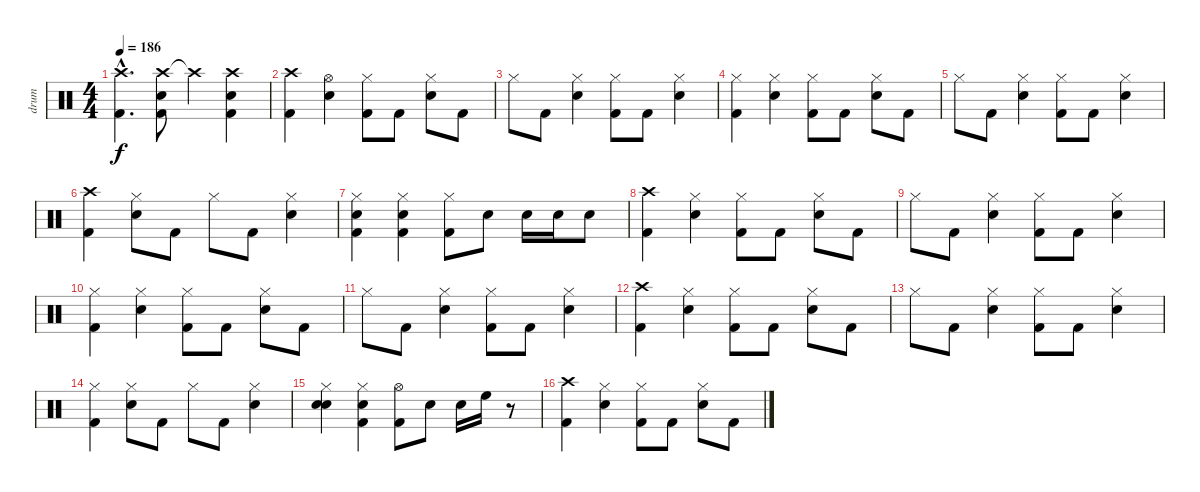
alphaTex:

\track ("drum" "drum") {instrument percussion}
\staff {score}
\articulation defaults
\ts (4 4)
\tempo 186
\clef neutral
\ks c
("Crash high (hit)"{hac} "Kick (hit) 2"{hac}).4{d dy f} ("Crash high (hit)" "Snare (hit) 2" "Kick (hit) 2").8 "Crash high (hit)"{t}.4 ("Crash high (hit)" "Snare (hit) 2" "Kick (hit) 2").4 |
("Crash high (hit)" "Kick (hit) 2").4 ("Hi-Hat (open)" "Snare (hit) 2").4 ("Hi-Hat (closed)" "Kick (hit) 2").8 "Kick (hit) 2".8 ("Hi-Hat (closed)" "Snare (hit) 2").8 "Kick (hit) 2".8 |
"Hi-Hat (closed)".8 "Kick (hit) 2".8 ("Hi-Hat (closed)" "Snare (hit) 2").4 ("Hi-Hat (closed)" "Kick (hit) 2").8 "Kick (hit) 2".8 ("Hi-Hat (closed)" "Snare (hit) 2").4 |
("Hi-Hat (closed)" "Kick (hit) 2").4 ("Hi-Hat (closed)" "Snare (hit) 2").4 ("Hi-Hat (closed)" "Kick (hit) 2").8 "Kick (hit) 2".8 ("Hi-Hat (closed)" "Snare (hit) 2").8 "Kick (hit) 2".8 |
"Hi-Hat (closed)".8 "Kick (hit) 2".8 ("Hi-Hat (closed)" "Snare (hit) 2").4 ("Hi-Hat (closed)" "Kick (hit) 2").8 "Kick (hit) 2".8 ("Hi-Hat (closed)" "Snare (hit) 2").4 |
("Crash high (hit)" "Kick (hit) 2").4 ("Hi-Hat (closed)" "Snare (hit) 2").8 "Kick (hit) 2".8 "Hi-Hat (closed)".8 "Kick (hit) 2".8 ("Hi-Hat (closed)" "Snare (hit) 2").4 |
("Hi-Hat (closed)" "Snare (hit) 2" "Kick (hit) 2").4 ("Hi-Hat (closed)" "Snare (hit) 2" "Kick (hit) 2").4 ("Hi-Hat (closed)" "Kick (hit) 2").8 "Snare (hit) 2".8 "Snare (hit) 2".16 "Snare (hit) 2".16 "Snare (hit) 2".8 |
("Crash high (hit)" "Kick (hit) 2").4 ("Hi-Hat (closed)" "Snare (hit) 2").4 ("Hi-Hat (closed)" "Kick (hit) 2").8 "Kick (hit) 2".8 ("Hi-Hat (closed)" "Snare (hit) 2").8 "Kick (hit) 2".8 |
"Hi-Hat (closed)".8 "Kick (hit) 2".8 ("Hi-Hat (closed)" "Snare (hit) 2").4 ("Hi-Hat (closed)" "Kick (hit) 2").8 "Kick (hit) 2".8 ("Hi-Hat (closed)" "Snare (hit) 2").4 |
("Hi-Hat (closed)" "Kick (hit) 2").4 ("Hi-Hat (closed)" "Snare (hit) 2").4 ("Hi-Hat (closed)" "Kick (hit) 2").8 "Kick (hit) 2".8 ("Hi-Hat (closed)" "Snare (hit) 2").8 "Kick (hit) 2".8 |
"Hi-Hat (closed)".8 "Kick (hit) 2".8 ("Hi-Hat (closed)" "Snare (hit) 2").4 ("Hi-Hat (closed)" "Kick (hit) 2").8 "Kick (hit) 2".8 ("Hi-Hat (closed)" "Snare (hit) 2").4 |
("Crash high (hit)" "Kick (hit) 2").4 ("Hi-Hat (closed)" "Snare (hit) 2").4 ("Hi-Hat (closed)" "Kick (hit) 2").8 "Kick (hit) 2".8 ("Hi-Hat (closed)" "Snare (hit) 2").8 "Kick (hit) 2".8 |
"Hi-Hat (closed)".8 "Kick (hit) 2".8 ("Hi-Hat (closed)" "Snare (hit) 2").4 ("Hi-Hat (closed)" "Kick (hit) 2").8 "Kick (hit) 2".8 ("Hi-Hat (closed)" "Snare (hit) 2").4 |
("Hi-Hat (closed)" "Kick (hit) 2").4 ("Hi-Hat (closed)" "Snare (hit) 2").8 "Kick (hit) 2".8 "Hi-Hat (closed)".8 "Kick (hit) 2".8 ("Hi-Hat (closed)" "Snare (hit) 2").4 |
("Hi-Hat (closed)" "Snare (hit) 2" "Snare (hit) 2").4 ("Hi-Hat (closed)" "Snare (hit) 2" "Kick (hit) 2").4 ("Hi-Hat (open)" "Kick (hit) 2").8 "Snare (hit) 2".8 "Snare (hit) 2".16 "High Floor Tom (hit)".16 r.8 |
("Crash high (hit)" "Kick (hit) 2").4 ("Hi-Hat (closed)" "Snare (hit) 2").4 ("Hi-Hat (closed)" "Kick (hit) 2").8 "Kick (hit) 2".8 ("Hi-Hat (closed)" "Snare (hit) 2").8 "Kick (hit) 2".8
